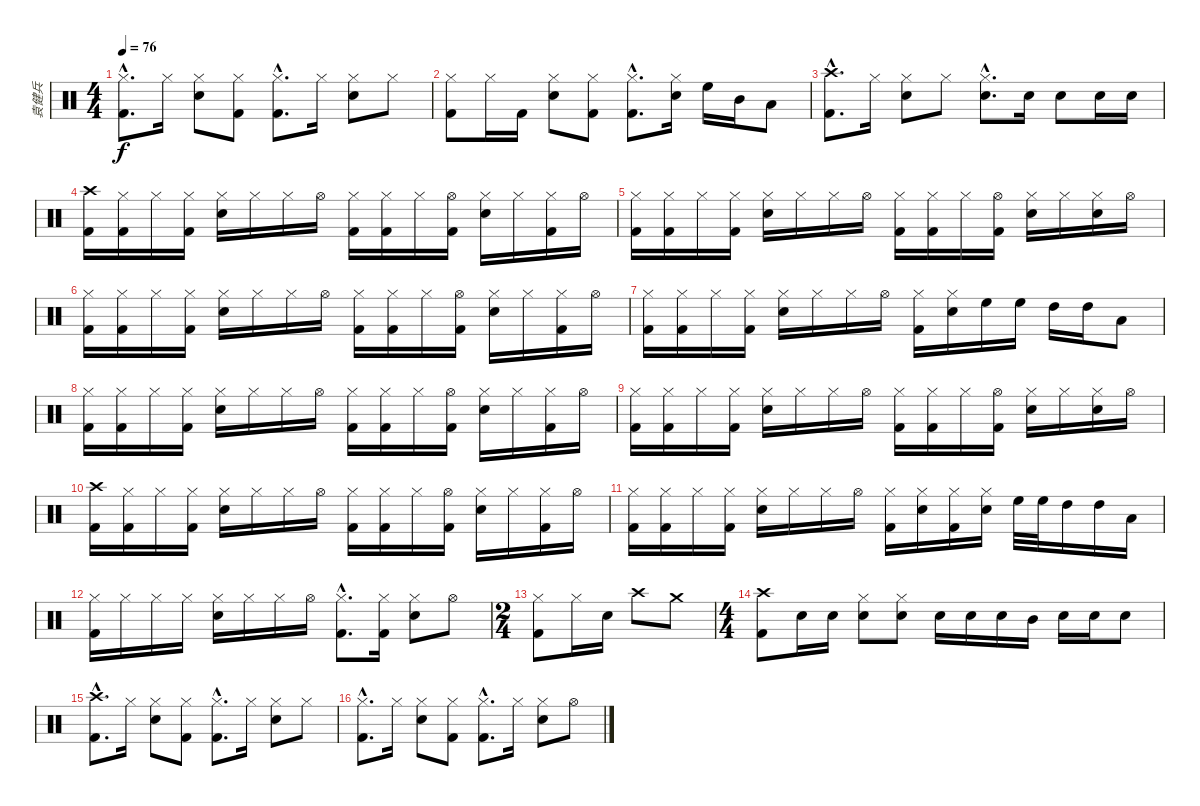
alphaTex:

\track ("袁健兵" "袁健兵") {instrument percussion}
\staff {score}
\articulation defaults
\ts (4 4)
\tempo 76
\clef neutral
\ks c
("Hi-Hat (closed)"{hac} "Kick (hit) 2"{hac}).8{d dy f} "Hi-Hat (closed)".16 ("Hi-Hat (closed)" "Snare (hit) 2").8 ("Hi-Hat (closed)" "Kick (hit) 2").8 ("Hi-Hat (closed)"{hac} "Kick (hit) 2"{hac}).8{d} "Hi-Hat (closed)".16 ("Hi-Hat (closed)" "Snare (hit) 2").8 "Hi-Hat (closed)".8 |
("Hi-Hat (closed)" "Kick (hit) 2").8 "Hi-Hat (closed)".16 "Kick (hit) 2".16 ("Hi-Hat (closed)" "Snare (hit) 2").8 ("Hi-Hat (closed)" "Kick (hit) 2").8 ("Hi-Hat (closed)"{hac} "Kick (hit) 2"{hac}).8{d} ("Hi-Hat (closed)" "Snare (hit) 2").16 "High Floor Tom (hit)".16 "Mid Tom (hit)".16 "Low Tom (hit)".8 |
("Crash high (hit)"{hac} "Kick (hit) 2"{hac}).8{d} "Hi-Hat (closed)".16 ("Hi-Hat (closed)" "Snare (hit) 2").8 "Hi-Hat (closed)".8 ("Hi-Hat (closed)"{hac} "Snare (hit) 2"{hac}).8{d} "Snare (hit) 2".16 "Snare (hit) 2".8 "Snare (hit) 2".16 "Snare (hit) 2".16 |
("Crash high (hit)" "Kick (hit) 2").16 ("Hi-Hat (closed)" "Kick (hit) 2").16 "Hi-Hat (closed)".16 ("Hi-Hat (closed)" "Kick (hit) 2").16 ("Hi-Hat (closed)" "Snare (hit) 2").16 "Hi-Hat (closed)".16 "Hi-Hat (closed)".16 "Hi-Hat (open)".16 ("Hi-Hat (closed)" "Kick (hit) 2").16 ("Hi-Hat (closed)" "Kick (hit) 2").16 "Hi-Hat (closed)".16 ("Hi-Hat (open)" "Kick (hit) 2").16 ("Hi-Hat (closed)" "Snare (hit) 2").16 "Hi-Hat (closed)".16 ("Hi-Hat (closed)" "Kick (hit) 2").16 "Hi-Hat (open)".16 |
("Hi-Hat (closed)" "Kick (hit) 2").16 ("Hi-Hat (closed)" "Kick (hit) 2").16 "Hi-Hat (closed)".16 ("Hi-Hat (closed)" "Kick (hit) 2").16 ("Hi-Hat (closed)" "Snare (hit) 2").16 "Hi-Hat (closed)".16 "Hi-Hat (closed)".16 "Hi-Hat (open)".16 ("Hi-Hat (closed)" "Kick (hit) 2").16 ("Hi-Hat (closed)" "Kick (hit) 2").16 "Hi-Hat (closed)".16 ("Hi-Hat (open)" "Kick (hit) 2").16 ("Hi-Hat (closed)" "Snare (hit) 2").16 "Hi-Hat (closed)".16 ("Hi-Hat (closed)" "Snare (hit) 2").16 "Hi-Hat (open)".16 |
("Hi-Hat (closed)" "Kick (hit) 2").16 ("Hi-Hat (closed)" "Kick (hit) 2").16 "Hi-Hat (closed)".16 ("Hi-Hat (closed)" "Kick (hit) 2").16 ("Hi-Hat (closed)" "Snare (hit) 2").16 "Hi-Hat (closed)".16 "Hi-Hat (closed)".16 "Hi-Hat (open)".16 ("Hi-Hat (closed)" "Kick (hit) 2").16 ("Hi-Hat (closed)" "Kick (hit) 2").16 "Hi-Hat (closed)".16 ("Hi-Hat (open)" "Kick (hit) 2").16 ("Hi-Hat (closed)" "Snare (hit) 2").16 "Hi-Hat (closed)".16 ("Hi-Hat (closed)" "Kick (hit) 2").16 "Hi-Hat (open)".16 |
("Hi-Hat (closed)" "Kick (hit) 2").16 ("Hi-Hat (closed)" "Kick (hit) 2").16 "Hi-Hat (closed)".16 ("Hi-Hat (closed)" "Kick (hit) 2").16 ("Hi-Hat (closed)" "Snare (hit) 2").16 "Hi-Hat (closed)".16 "Hi-Hat (closed)".16 "Hi-Hat (open)".16 ("Hi-Hat (closed)" "Kick (hit) 2").16 ("Hi-Hat (closed)" "Snare (hit) 2").16 "High Floor Tom (hit)".16 "High Floor Tom (hit)".16 "High Tom (hit)".16 "High Tom (hit)".16 "Low Tom (hit)".8 |
("Hi-Hat (closed)" "Kick (hit) 2").16 ("Hi-Hat (closed)" "Kick (hit) 2").16 "Hi-Hat (closed)".16 ("Hi-Hat (closed)" "Kick (hit) 2").16 ("Hi-Hat (closed)" "Snare (hit) 2").16 "Hi-Hat (closed)".16 "Hi-Hat (closed)".16 "Hi-Hat (open)".16 ("Hi-Hat (closed)" "Kick (hit) 2").16 ("Hi-Hat (closed)" "Kick (hit) 2").16 "Hi-Hat (closed)".16 ("Hi-Hat (open)" "Kick (hit) 2").16 ("Hi-Hat (closed)" "Snare (hit) 2").16 "Hi-Hat (closed)".16 ("Hi-Hat (closed)" "Kick (hit) 2").16 "Hi-Hat (open)".16 |
("Hi-Hat (closed)" "Kick (hit) 2").16 ("Hi-Hat (closed)" "Kick (hit) 2").16 "Hi-Hat (closed)".16 ("Hi-Hat (closed)" "Kick (hit) 2").16 ("Hi-Hat (closed)" "Snare (hit) 2").16 "Hi-Hat (closed)".16 "Hi-Hat (closed)".16 "Hi-Hat (open)".16 ("Hi-Hat (closed)" "Kick (hit) 2").16 ("Hi-Hat (closed)" "Kick (hit) 2").16 "Hi-Hat (closed)".16 ("Hi-Hat (open)" "Kick (hit) 2").16 ("Hi-Hat (closed)" "Snare (hit) 2").16 "Hi-Hat (closed)".16 ("Hi-Hat (closed)" "Snare (hit) 2").16 "Hi-Hat (open)".16 |
("Crash high (hit)" "Kick (hit) 2").16 ("Hi-Hat (closed)" "Kick (hit) 2").16 "Hi-Hat (closed)".16 ("Hi-Hat (closed)" "Kick (hit) 2").16 ("Hi-Hat (closed)" "Snare (hit) 2").16 "Hi-Hat (closed)".16 "Hi-Hat (closed)".16 "Hi-Hat (open)".16 ("Hi-Hat (closed)" "Kick (hit) 2").16 ("Hi-Hat (closed)" "Kick (hit) 2").16 "Hi-Hat (closed)".16 ("Hi-Hat (open)" "Kick (hit) 2").16 ("Hi-Hat (closed)" "Snare (hit) 2").16 "Hi-Hat (closed)".16 ("Hi-Hat (closed)" "Kick (hit) 2").16 "Hi-Hat (open)".16 |
("Hi-Hat (closed)" "Kick (hit) 2").16 ("Hi-Hat (closed)" "Kick (hit) 2").16 "Hi-Hat (closed)".16 ("Hi-Hat (closed)" "Kick (hit) 2").16 ("Hi-Hat (closed)" "Snare (hit) 2").16 "Hi-Hat (closed)".16 "Hi-Hat (closed)".16 "Hi-Hat (open)".16 ("Hi-Hat (closed)" "Kick (hit) 2").16 ("Hi-Hat (closed)" "Snare (hit) 2").16 ("Hi-Hat (closed)" "Kick (hit) 2").16 ("Hi-Hat (closed)" "Snare (hit) 2").16 "High Floor Tom (hit)".32 "High Floor Tom (hit)".32 "High Tom (hit)".16 "High Tom (hit)".16 "Low Tom (hit)".16 |
("Hi-Hat (closed)" "Kick (hit) 2").16 "Hi-Hat (closed)".16 "Hi-Hat (closed)".16 "Hi-Hat (closed)".16 ("Hi-Hat (closed)" "Snare (hit) 2").16 "Hi-Hat (closed)".16 "Hi-Hat (closed)".16 "Hi-Hat (open)".16 ("Hi-Hat (closed)"{hac} "Kick (hit) 2"{hac}).8{d} ("Hi-Hat (closed)" "Kick (hit) 2").16 ("Hi-Hat (closed)" "Snare (hit) 2").8 "Hi-Hat (open)".8 |
\ts (2 4)
("Hi-Hat (closed)" "Kick (hit) 2").8 "Hi-Hat (closed)".16 "Snare (hit) 2".16 "Crash high (hit)".8 "Crash medium (hit)".8 |
\ts (4 4)
("Crash high (hit)" "Kick (hit) 2").8 "Snare (hit) 2".16 "Snare (hit) 2".16 ("Hi-Hat (closed)" "Snare (hit) 2").8 ("Hi-Hat (closed)" "Snare (hit) 2").8 "Snare (hit) 2".16 "Snare (hit) 2".16 "Snare (hit) 2".16 "Mid Tom (hit)".16 "Snare (hit) 2".16 "Snare (hit) 2".16 "Snare (hit) 2".8 |
("Crash high (hit)"{hac} "Kick (hit) 2"{hac}).8{d} "Hi-Hat (closed)".16 ("Hi-Hat (closed)" "Snare (hit) 2").8 ("Hi-Hat (closed)" "Kick (hit) 2").8 ("Hi-Hat (closed)"{hac} "Kick (hit) 2"{hac}).8{d} "Hi-Hat (closed)".16 ("Hi-Hat (closed)" "Snare (hit) 2").8 "Hi-Hat (closed)".8 |
("Hi-Hat (closed)"{hac} "Kick (hit) 2"{hac}).8{d} "Hi-Hat (closed)".16 ("Hi-Hat (closed)" "Snare (hit) 2").8 ("Hi-Hat (closed)" "Kick (hit) 2").8 ("Hi-Hat (closed)"{hac} "Kick (hit) 2"{hac}).8{d} "Hi-Hat (closed)".16 ("Hi-Hat (closed)" "Snare (hit) 2").8 "Hi-Hat (open)".8
